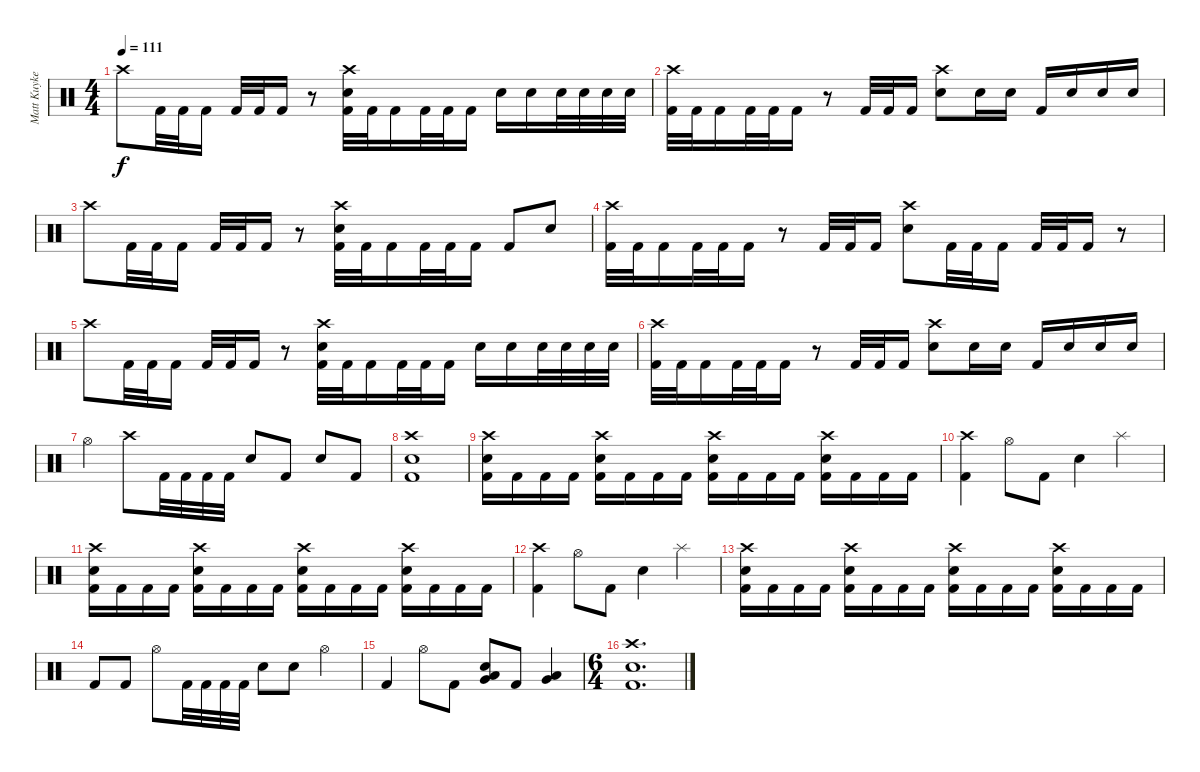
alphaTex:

\track ("Matt Kuykendall (Drums)" "Matt Kuyke") {instrument percussion}
\staff {score}
\articulation defaults
\ts (4 4)
\tempo 111
\clef neutral
\ks c "Crash high (hit)".8{dy f} "Kick (hit) 2".32 "Kick (hit) 2".32 "Kick (hit) 2".16 "Kick (hit) 2".32 "Kick (hit) 2".32 "Kick (hit) 2".16
r.8 ("Crash high (hit)" "Snare (hit) 2" "Kick (hit) 2").32 "Kick (hit) 2".32 "Kick (hit) 2".16 "Kick (hit) 2".32 "Kick (hit) 2".32 "Kick (hit) 2".16 "Snare (hit) 2".16 "Snare (hit) 2".16 "Snare (hit) 2".32 "Snare (hit) 2".32 "Snare (hit) 2".32 "Snare (hit) 2".32 |
("Crash high (hit)" "Kick (hit) 2").32 "Kick (hit) 2".32 "Kick (hit) 2".16 "Kick (hit) 2".32 "Kick (hit) 2".32 "Kick (hit) 2".16 r.8 "Kick (hit) 2".32 "Kick (hit) 2".32 "Kick (hit) 2".16 ("Crash high (hit)" "Snare (hit) 2").8 "Snare (hit) 2".16 "Snare (hit) 2".16 "Kick (hit) 2".16 "Snare (hit) 2".16 "Snare (hit) 2".16 "Snare (hit) 2".16 |
"Crash high (hit)".8 "Kick (hit) 2".32 "Kick (hit) 2".32 "Kick (hit) 2".16 "Kick (hit) 2".32 "Kick (hit) 2".32 "Kick (hit) 2".16 r.8 ("Crash high (hit)" "Snare (hit) 2" "Kick (hit) 2").32 "Kick (hit) 2".32 "Kick (hit) 2".16 "Kick (hit) 2".32 "Kick (hit) 2".32 "Kick (hit) 2".16 "Kick (hit) 2".8 "Snare (hit) 2".8 |
("Crash high (hit)" "Kick (hit) 2").32 "Kick (hit) 2".32 "Kick (hit) 2".16 "Kick (hit) 2".32 "Kick (hit) 2".32 "Kick (hit) 2".16 r.8 "Kick (hit) 2".32 "Kick (hit) 2".32 "Kick (hit) 2".16 ("Crash high (hit)" "Snare (hit) 2").8 "Kick (hit) 2".32 "Kick (hit) 2".32 "Kick (hit) 2".16 "Kick (hit) 2".32 "Kick (hit) 2".32 "Kick (hit) 2".16 r.8 |
"Crash high (hit)".8 "Kick (hit) 2".32 "Kick (hit) 2".32 "Kick (hit) 2".16 "Kick (hit) 2".32 "Kick (hit) 2".32 "Kick (hit) 2".16 r.8 ("Crash high (hit)" "Snare (hit) 2" "Kick (hit) 2").32 "Kick (hit) 2".32 "Kick (hit) 2".16 "Kick (hit) 2".32 "Kick (hit) 2".32 "Kick (hit) 2".16 "Snare (hit) 2".16 "Snare (hit) 2".16 "Snare (hit) 2".32 "Snare (hit) 2".32 "Snare (hit) 2".32 "Snare (hit) 2".32 |
("Crash high (hit)" "Kick (hit) 2").32 "Kick (hit) 2".32 "Kick (hit) 2".16 "Kick (hit) 2".32 "Kick (hit) 2".32 "Kick (hit) 2".16 r.8 "Kick (hit) 2".32 "Kick (hit) 2".32 "Kick (hit) 2".16 ("Crash high (hit)" "Snare (hit) 2").8 "Snare (hit) 2".16 "Snare (hit) 2".16 "Kick (hit) 2".16 "Snare (hit) 2".16 "Snare (hit) 2".16 "Snare (hit) 2".16 |
"Hi-Hat (open)".4 "Crash high (hit)".8 "Kick (hit) 2".32 "Kick (hit) 2".32 "Kick (hit) 2".32 "Kick (hit) 2".32 "Snare (hit) 2".8 "Kick (hit) 2".8 "Snare (hit) 2".8 "Kick (hit) 2".8 |
("Crash high (hit)" "Snare (hit) 2" "Kick (hit) 2").1 |
("Crash high (hit)" "Snare (hit) 2" "Kick (hit) 2").16 "Kick (hit) 2".16 "Kick (hit) 2".16 "Kick (hit) 2".16 ("Crash high (hit)" "Snare (hit) 2" "Kick (hit) 2").16 "Kick (hit) 2".16 "Kick (hit) 2".16 "Kick (hit) 2".16 ("Crash high (hit)" "Snare (hit) 2" "Kick (hit) 2").16 "Kick (hit) 2".16 "Kick (hit) 2".16 "Kick (hit) 2".16 ("Crash high (hit)" "Snare (hit) 2" "Kick (hit) 2").16 "Kick (hit) 2".16 "Kick (hit) 2".16 "Kick (hit) 2".16 |
("Crash high (hit)" "Kick (hit) 2").4 "Hi-Hat (open)".8 "Kick (hit) 2".8 "Snare (hit) 2".4 "Splash (hit)".4 |
("Crash high (hit)" "Snare (hit) 2" "Kick (hit) 2").16 "Kick (hit) 2".16 "Kick (hit) 2".16 "Kick (hit) 2".16 ("Crash high (hit)" "Snare (hit) 2" "Kick (hit) 2").16 "Kick (hit) 2".16 "Kick (hit) 2".16 "Kick (hit) 2".16 ("Crash high (hit)" "Snare (hit) 2" "Kick (hit) 2").16 "Kick (hit) 2".16 "Kick (hit) 2".16 "Kick (hit) 2".16 ("Crash high (hit)" "Snare (hit) 2" "Kick (hit) 2").16 "Kick (hit) 2".16 "Kick (hit) 2".16 "Kick (hit) 2".16 |
("Crash high (hit)" "Kick (hit) 2").4 "Hi-Hat (open)".8 "Kick (hit) 2".8 "Snare (hit) 2".4 "Splash (hit)".4 |
("Crash high (hit)" "Snare (hit) 2" "Kick (hit) 2").16 "Kick (hit) 2".16 "Kick (hit) 2".16 "Kick (hit) 2".16 ("Crash high (hit)" "Snare (hit) 2" "Kick (hit) 2").16 "Kick (hit) 2".16 "Kick (hit) 2".16 "Kick (hit) 2".16 ("Crash high (hit)" "Snare (hit) 2" "Kick (hit) 2").16 "Kick (hit) 2".16 "Kick (hit) 2".16 "Kick (hit) 2".16 ("Crash high (hit)" "Snare (hit) 2" "Kick (hit) 2").16 "Kick (hit) 2".16 "Kick (hit) 2".16 "Kick (hit) 2".16 |
"Kick (hit) 2".8 "Kick (hit) 2".8 "Hi-Hat (open)".8 "Kick (hit) 2".32 "Kick (hit) 2".32 "Kick (hit) 2".32 "Kick (hit) 2".32 "Snare (hit) 2".8 "Snare (hit) 2".8 "Hi-Hat (open)".4 |
"Kick (hit) 2".4 "Hi-Hat (open)".8 "Kick (hit) 2".8 ("Snare (hit) 2" "Low Tom (hit)" "Very Low Tom (hit)").8 "Kick (hit) 2".8 ("Low Floor Tom (hit)" "Very Low Tom (hit)").4 |
\ts (6 4)
("Crash high (hit)" "Snare (hit) 2" "Kick (hit) 2").1{d}
